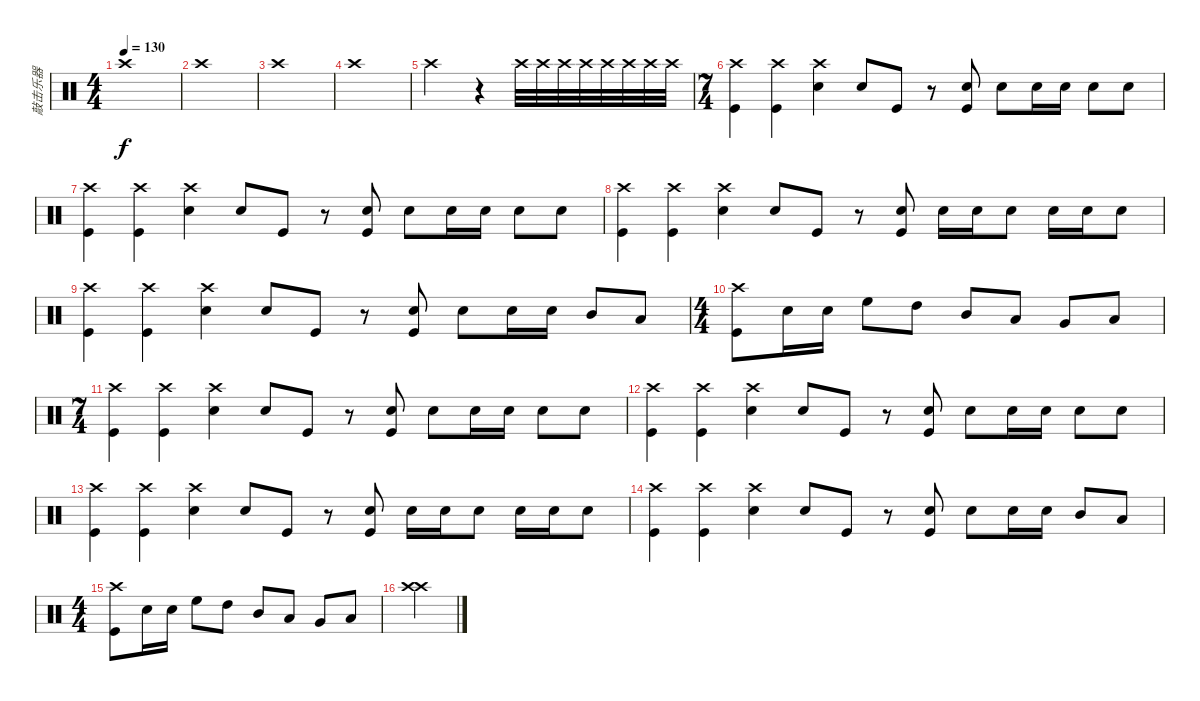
\track ("敲击乐器" "敲击乐器") {instrument percussion}
\staff {score}
\articulation defaults
\ts (4 4)
\tempo 130
\clef neutral
\ks c "Crash high (hit)".1{dy f}
|
"Crash high (hit)".1 |
"Crash high (hit)".1 |
"Crash high (hit)".1 |
"Crash high (hit)".2 r.4 "Crash high (hit)".32 "Crash high (hit)".32 "Crash high (hit)".32 "Crash high (hit)".32 "Crash high (hit)".32 "Crash high (hit)".32 "Crash high (hit)".32 "Crash high (hit)".32 |
\ts (7 4)
("Crash high (hit)" "Kick (hit)").4 ("Crash high (hit)" "Kick (hit)").4 ("Crash high (hit)" "Snare (hit) 2").4 "Snare (hit) 2".8 "Kick (hit)".8 r.8 ("Snare (hit) 2" "Kick (hit)").8 "Snare (hit) 2".8 "Snare (hit) 2".16 "Snare (hit) 2".16 "Snare (hit) 2".8 "Snare (hit) 2".8 |
("Crash high (hit)" "Kick (hit)").4 ("Crash high (hit)" "Kick (hit)").4 ("Crash high (hit)" "Snare (hit) 2").4 "Snare (hit) 2".8 "Kick (hit)".8 r.8 ("Snare (hit) 2" "Kick (hit)").8 "Snare (hit) 2".8 "Snare (hit) 2".16 "Snare (hit) 2".16 "Snare (hit) 2".8 "Snare (hit) 2".8 |
("Crash high (hit)" "Kick (hit)").4 ("Crash high (hit)" "Kick (hit)").4 ("Crash high (hit)" "Snare (hit) 2").4 "Snare (hit) 2".8 "Kick (hit)".8 r.8 ("Snare (hit) 2" "Kick (hit)").8 "Snare (hit) 2".16 "Snare (hit) 2".16 "Snare (hit) 2".8 "Snare (hit) 2".16 "Snare (hit) 2".16 "Snare (hit) 2".8 |
("Crash high (hit)" "Kick (hit)").4 ("Crash high (hit)" "Kick (hit)").4 ("Crash high (hit)" "Snare (hit) 2").4 "Snare (hit) 2".8 "Kick (hit)".8 r.8 ("Snare (hit) 2" "Kick (hit)").8 "Snare (hit) 2".8 "Snare (hit) 2".16 "Snare (hit) 2".16 "Mid Tom (hit)".8 "Low Tom (hit)".8 |
\ts (4 4)
("Crash high (hit)" "Kick (hit)").8 "Snare (hit) 2".16 "Snare (hit) 2".16 "High Floor Tom (hit)".8 "High Tom (hit)".8 "Mid Tom (hit)".8 "Low Tom (hit)".8 "Very Low Tom (hit)".8 "Low Floor Tom (hit)".8 |
\ts (7 4)
("Crash high (hit)" "Kick (hit)").4 ("Crash high (hit)" "Kick (hit)").4 ("Crash high (hit)" "Snare (hit) 2").4 "Snare (hit) 2".8 "Kick (hit)".8 r.8 ("Snare (hit) 2" "Kick (hit)").8 "Snare (hit) 2".8 "Snare (hit) 2".16 "Snare (hit) 2".16 "Snare (hit) 2".8 "Snare (hit) 2".8 |
("Crash high (hit)" "Kick (hit)").4 ("Crash high (hit)" "Kick (hit)").4 ("Crash high (hit)" "Snare (hit) 2").4 "Snare (hit) 2".8 "Kick (hit)".8 r.8 ("Snare (hit) 2" "Kick (hit)").8 "Snare (hit) 2".8 "Snare (hit) 2".16 "Snare (hit) 2".16 "Snare (hit) 2".8 "Snare (hit) 2".8 |
("Crash high (hit)" "Kick (hit)").4 ("Crash high (hit)" "Kick (hit)").4 ("Crash high (hit)" "Snare (hit) 2").4 "Snare (hit) 2".8 "Kick (hit)".8 r.8 ("Snare (hit) 2" "Kick (hit)").8 "Snare (hit) 2".16 "Snare (hit) 2".16 "Snare (hit) 2".8 "Snare (hit) 2".16 "Snare (hit) 2".16 "Snare (hit) 2".8 |
("Crash high (hit)" "Kick (hit)").4 ("Crash high (hit)" "Kick (hit)").4 ("Crash high (hit)" "Snare (hit) 2").4 "Snare (hit) 2".8 "Kick (hit)".8 r.8 ("Snare (hit) 2" "Kick (hit)").8 "Snare (hit) 2".8 "Snare (hit) 2".16 "Snare (hit) 2".16 "Mid Tom (hit)".8 "Low Tom (hit)".8 |
\ts (4 4)
("Crash high (hit)" "Kick (hit)").8 "Snare (hit) 2".16 "Snare (hit) 2".16 "High Floor Tom (hit)".8 "High Tom (hit)".8 "Mid Tom (hit)".8 "Low Tom (hit)".8 "Very Low Tom (hit)".8 "Low Floor Tom (hit)".8 |
("Crash high (hit)" "Crash high (hit)").4
